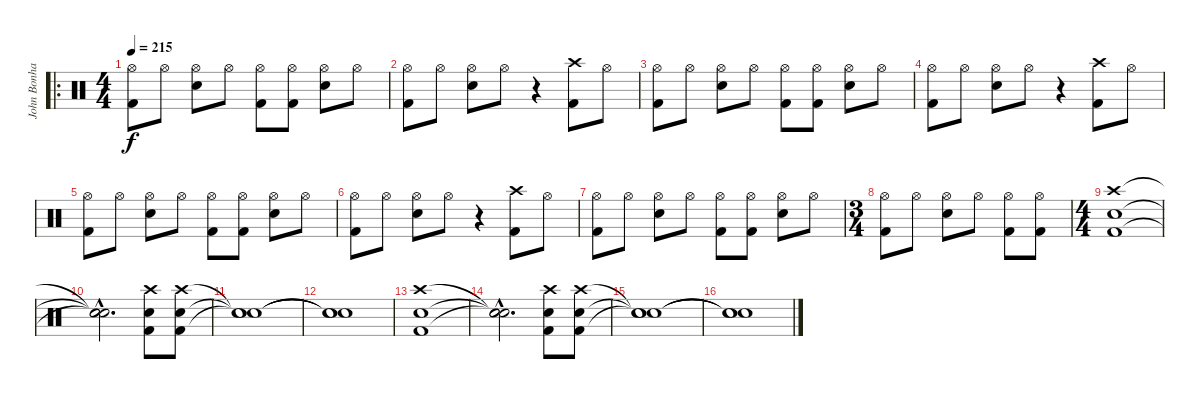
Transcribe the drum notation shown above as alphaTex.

\track ("John Bonham" "John Bonha") {instrument percussion}
\staff {score}
\articulation defaults
\ro
\ts (4 4)
\tempo 215
\clef neutral
\ks c
("Hi-Hat (open)" "Kick (hit) 2").8{dy f} "Hi-Hat (open)".8 ("Hi-Hat (open)" "Snare (hit) 2").8 "Hi-Hat (open)".8 ("Hi-Hat (open)" "Kick (hit) 2").8 ("Hi-Hat (open)" "Kick (hit) 2").8 ("Hi-Hat (open)" "Snare (hit) 2").8 "Hi-Hat (open)".8 |
("Hi-Hat (open)" "Kick (hit) 2").8 "Hi-Hat (open)".8 ("Hi-Hat (open)" "Snare (hit) 2").8 "Hi-Hat (open)".8 r.4 ("Crash high (hit)" "Kick (hit) 2").8 "Hi-Hat (open)".8 |
("Hi-Hat (open)" "Kick (hit) 2").8 "Hi-Hat (open)".8 ("Hi-Hat (open)" "Snare (hit) 2").8 "Hi-Hat (open)".8 ("Hi-Hat (open)" "Kick (hit) 2").8 ("Hi-Hat (open)" "Kick (hit) 2").8 ("Hi-Hat (open)" "Snare (hit) 2").8 "Hi-Hat (open)".8 |
("Hi-Hat (open)" "Kick (hit) 2").8 "Hi-Hat (open)".8 ("Hi-Hat (open)" "Snare (hit) 2").8 "Hi-Hat (open)".8 r.4 ("Crash high (hit)" "Kick (hit) 2").8 "Hi-Hat (open)".8 |
("Hi-Hat (open)" "Kick (hit) 2").8 "Hi-Hat (open)".8 ("Hi-Hat (open)" "Snare (hit) 2").8 "Hi-Hat (open)".8 ("Hi-Hat (open)" "Kick (hit) 2").8 ("Hi-Hat (open)" "Kick (hit) 2").8 ("Hi-Hat (open)" "Snare (hit) 2").8 "Hi-Hat (open)".8 |
("Hi-Hat (open)" "Kick (hit) 2").8 "Hi-Hat (open)".8 ("Hi-Hat (open)" "Snare (hit) 2").8 "Hi-Hat (open)".8 r.4 ("Crash high (hit)" "Kick (hit) 2").8 "Hi-Hat (open)".8 |
("Hi-Hat (open)" "Kick (hit) 2").8 "Hi-Hat (open)".8 ("Hi-Hat (open)" "Snare (hit) 2").8 "Hi-Hat (open)".8 ("Hi-Hat (open)" "Kick (hit) 2").8 ("Hi-Hat (open)" "Kick (hit) 2").8 ("Hi-Hat (open)" "Snare (hit) 2").8 "Hi-Hat (open)".8 |
\ts (3 4)
("Hi-Hat (open)" "Kick (hit) 2").8 "Hi-Hat (open)".8 ("Hi-Hat (open)" "Snare (hit) 2").8 "Hi-Hat (open)".8 ("Hi-Hat (open)" "Kick (hit) 2").8 ("Hi-Hat (open)" "Kick (hit) 2").8 |
\ts (4 4)
("Crash high (hit)" "Snare (hit) 2" "Kick (hit) 2").1 |
("Snare (hit)"{hac t} "Snare (hit)"{hac t} "Snare (hit)"{hac t}).2{d} ("Crash high (hit)" "Snare (hit) 2" "Kick (hit) 2").8 ("Crash high (hit)" "Snare (hit) 2" "Kick (hit) 2").8 |
("Snare (hit)"{t} "Snare (hit)"{t} "Snare (hit)"{t}).1 |
("Snare (hit)"{t} "Snare (hit)"{t} "Snare (hit)"{t}).1 |
("Crash high (hit)" "Snare (hit) 2" "Kick (hit) 2").1 |
("Snare (hit)"{hac t} "Snare (hit)"{hac t} "Snare (hit)"{hac t}).2{d} ("Crash high (hit)" "Snare (hit) 2" "Kick (hit) 2").8 ("Crash high (hit)" "Snare (hit) 2" "Kick (hit) 2").8 |
("Snare (hit)"{t} "Snare (hit)"{t} "Snare (hit)"{t}).1 |
("Snare (hit)"{t} "Snare (hit)"{t} "Snare (hit)"{t}).1
